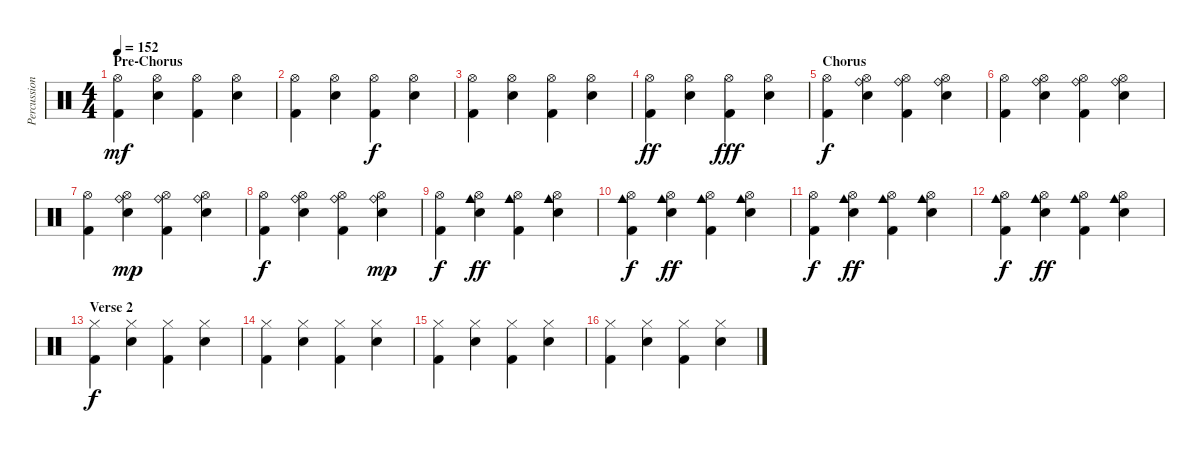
\track ("Percussions" "Percussion") {instrument percussion}
\staff {score}
\articulation defaults
\ts (4 4)
\section ("" "Pre-Chorus")
\tempo 152
\clef neutral
\ks c
("Hi-Hat (open)" "Kick (hit) 2").4{dy mf} ("Hi-Hat (open)" "Electric Snare (hit)").4 ("Hi-Hat (open)" "Kick (hit) 2").4 ("Hi-Hat (open)" "Electric Snare (hit)").4 |
("Hi-Hat (open)" "Kick (hit) 2").4 ("Hi-Hat (open)" "Electric Snare (hit)").4 ("Hi-Hat (open)" "Kick (hit) 2").4{dy f} ("Hi-Hat (open)" "Electric Snare (hit)").4 |
("Hi-Hat (open)" "Kick (hit) 2").4 ("Hi-Hat (open)" "Electric Snare (hit)").4 ("Hi-Hat (open)" "Kick (hit) 2").4 ("Hi-Hat (open)" "Electric Snare (hit)").4 |
("Hi-Hat (open)" "Kick (hit) 2").4{dy ff} ("Hi-Hat (open)" "Electric Snare (hit)").4 ("Hi-Hat (open)" "Kick (hit) 2").4{dy fff} ("Hi-Hat (open)" "Electric Snare (hit)").4 |
\section ("" "Chorus")
("Hi-Hat (open)" "Kick (hit) 2").4{dy f} ("Hi-Hat (open)" "Ride (bell)" "Electric Snare (hit)").4 ("Hi-Hat (open)" "Ride (bell)" "Kick (hit) 2").4 ("Hi-Hat (open)" "Ride (bell)" "Electric Snare (hit)").4 |
("Hi-Hat (open)" "Kick (hit) 2").4 ("Hi-Hat (open)" "Ride (bell)" "Electric Snare (hit)").4 ("Hi-Hat (open)" "Ride (bell)" "Kick (hit) 2").4 ("Hi-Hat (open)" "Ride (bell)" "Electric Snare (hit)").4 |
("Hi-Hat (open)" "Kick (hit) 2").4 ("Hi-Hat (open)" "Ride (bell)" "Electric Snare (hit)").4{dy mp} ("Hi-Hat (open)" "Ride (bell)" "Kick (hit) 2").4 ("Hi-Hat (open)" "Ride (bell)" "Electric Snare (hit)").4 |
("Hi-Hat (open)" "Kick (hit) 2").4{dy f} ("Hi-Hat (open)" "Ride (bell)" "Electric Snare (hit)").4 ("Hi-Hat (open)" "Ride (bell)" "Kick (hit) 2").4 ("Hi-Hat (open)" "Ride (bell)" "Electric Snare (hit)").4{dy mp} |
("Hi-Hat (open)" "Kick (hit) 2").4{dy f} ("Hi-Hat (open)" "Cowbell medium (hit)" "Electric Snare (hit)").4{dy ff} ("Hi-Hat (open)" "Cowbell medium (hit)" "Kick (hit) 2").4 ("Hi-Hat (open)" "Cowbell medium (hit)" "Electric Snare (hit)").4 |
("Hi-Hat (open)" "Cowbell medium (hit)" "Kick (hit) 2").4{dy f} ("Hi-Hat (open)" "Cowbell medium (hit)" "Electric Snare (hit)").4{dy ff} ("Hi-Hat (open)" "Cowbell medium (hit)" "Kick (hit) 2").4 ("Hi-Hat (open)" "Cowbell medium (hit)" "Electric Snare (hit)").4 |
("Hi-Hat (open)" "Kick (hit) 2").4{dy f} ("Hi-Hat (open)" "Cowbell medium (hit)" "Electric Snare (hit)").4{dy ff} ("Hi-Hat (open)" "Cowbell medium (hit)" "Kick (hit) 2").4 ("Hi-Hat (open)" "Cowbell medium (hit)" "Electric Snare (hit)").4 |
("Hi-Hat (open)" "Cowbell medium (hit)" "Kick (hit) 2").4{dy f} ("Hi-Hat (open)" "Cowbell medium (hit)" "Electric Snare (hit)").4{dy ff} ("Hi-Hat (open)" "Cowbell medium (hit)" "Kick (hit) 2").4 ("Hi-Hat (open)" "Cowbell medium (hit)" "Electric Snare (hit)").4 |
\section ("" "Verse 2")
("Hi-Hat (closed)" "Kick (hit) 2").4{dy f} ("Hi-Hat (closed)" "Electric Snare (hit)").4 ("Hi-Hat (closed)" "Kick (hit) 2").4 ("Hi-Hat (closed)" "Electric Snare (hit)").4 |
("Hi-Hat (closed)" "Kick (hit) 2").4 ("Hi-Hat (closed)" "Electric Snare (hit)").4 ("Hi-Hat (closed)" "Kick (hit) 2").4 ("Hi-Hat (closed)" "Electric Snare (hit)").4 |
("Hi-Hat (closed)" "Kick (hit) 2").4 ("Hi-Hat (closed)" "Electric Snare (hit)").4 ("Hi-Hat (closed)" "Kick (hit) 2").4 ("Hi-Hat (closed)" "Electric Snare (hit)").4 |
("Hi-Hat (closed)" "Kick (hit) 2").4 ("Hi-Hat (closed)" "Electric Snare (hit)").4 ("Hi-Hat (closed)" "Kick (hit) 2").4 ("Hi-Hat (closed)" "Electric Snare (hit)").4
